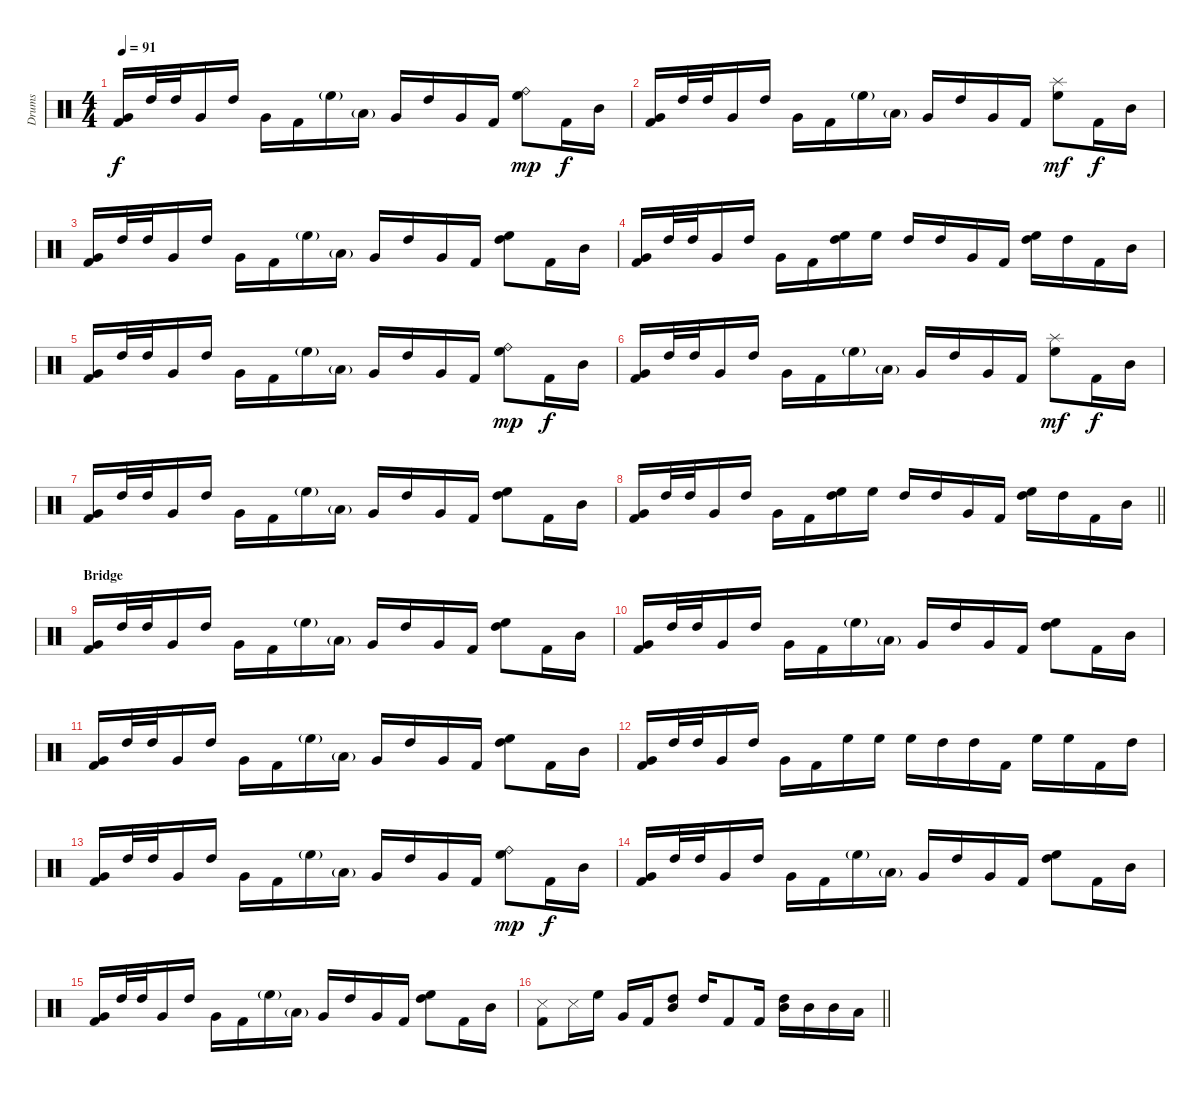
\track ("Drums" "Drums") {instrument percussion}
\staff {score}
\articulation defaults
\ts (4 4)
\section ("" "")
\tempo 91
\clef neutral
\ks c
("Very Low Tom (hit)" "Kick (hit) 2").16{dy f} "High Tom (hit)".32 "High Tom (hit)".32 "Very Low Tom (hit)".16 "High Tom (hit)".16 "Very Low Tom (hit)".16 "Kick (hit) 2".16 "High Floor Tom (hit)"{g}.16 "Low Floor Tom (hit)"{g}.16 "Very Low Tom (hit)".16 "High Tom (hit)".16 "Very Low Tom (hit)".16 "Kick (hit) 2".16 ("Ride (bell)" "High Floor Tom (hit)").8{dy mp} "Kick (hit) 2".16{dy f} "Mid Tom (hit)".16 |
("Very Low Tom (hit)" "Kick (hit) 2").16 "High Tom (hit)".32 "High Tom (hit)".32 "Very Low Tom (hit)".16 "High Tom (hit)".16 "Very Low Tom (hit)".16 "Kick (hit) 2".16 "High Floor Tom (hit)"{g}.16 "Low Floor Tom (hit)"{g}.16 "Very Low Tom (hit)".16 "High Tom (hit)".16 "Very Low Tom (hit)".16 "Kick (hit) 2".16 ("Splash (hit)" "High Floor Tom (hit)").8{dy mf} "Kick (hit) 2".16{dy f} "Mid Tom (hit)".16 |
("Very Low Tom (hit)" "Kick (hit) 2").16 "High Tom (hit)".32 "High Tom (hit)".32 "Very Low Tom (hit)".16 "High Tom (hit)".16 "Very Low Tom (hit)".16 "Kick (hit) 2".16 "High Floor Tom (hit)"{g}.16 "Low Floor Tom (hit)"{g}.16 "Very Low Tom (hit)".16 "High Tom (hit)".16 "Very Low Tom (hit)".16 "Kick (hit) 2".16 ("High Floor Tom (hit)" "High Tom (hit)").8 "Kick (hit) 2".16 "Mid Tom (hit)".16 |
("Very Low Tom (hit)" "Kick (hit) 2").16 "High Tom (hit)".32 "High Tom (hit)".32 "Very Low Tom (hit)".16 "High Tom (hit)".16 "Very Low Tom (hit)".16 "Kick (hit) 2".16 ("High Floor Tom (hit)" "High Tom (hit)").16 "High Floor Tom (hit)".16 "High Tom (hit)".16 "High Tom (hit)".16 "Very Low Tom (hit)".16 "Kick (hit) 2".16 ("High Floor Tom (hit)" "High Tom (hit)").16 "High Tom (hit)".16 "Kick (hit) 2".16 "Mid Tom (hit)".16 |
("Very Low Tom (hit)" "Kick (hit) 2").16 "High Tom (hit)".32 "High Tom (hit)".32 "Very Low Tom (hit)".16 "High Tom (hit)".16 "Very Low Tom (hit)".16 "Kick (hit) 2".16 "High Floor Tom (hit)"{g}.16 "Low Floor Tom (hit)"{g}.16 "Very Low Tom (hit)".16 "High Tom (hit)".16 "Very Low Tom (hit)".16 "Kick (hit) 2".16 ("Ride (bell)" "High Floor Tom (hit)").8{dy mp} "Kick (hit) 2".16{dy f} "Mid Tom (hit)".16 |
("Very Low Tom (hit)" "Kick (hit) 2").16 "High Tom (hit)".32 "High Tom (hit)".32 "Very Low Tom (hit)".16 "High Tom (hit)".16 "Very Low Tom (hit)".16 "Kick (hit) 2".16 "High Floor Tom (hit)"{g}.16 "Low Floor Tom (hit)"{g}.16 "Very Low Tom (hit)".16 "High Tom (hit)".16 "Very Low Tom (hit)".16 "Kick (hit) 2".16 ("Splash (hit)" "High Floor Tom (hit)").8{dy mf} "Kick (hit) 2".16{dy f} "Mid Tom (hit)".16 |
("Very Low Tom (hit)" "Kick (hit) 2").16 "High Tom (hit)".32 "High Tom (hit)".32 "Very Low Tom (hit)".16 "High Tom (hit)".16 "Very Low Tom (hit)".16 "Kick (hit) 2".16 "High Floor Tom (hit)"{g}.16 "Low Floor Tom (hit)"{g}.16 "Very Low Tom (hit)".16 "High Tom (hit)".16 "Very Low Tom (hit)".16 "Kick (hit) 2".16 ("High Floor Tom (hit)" "High Tom (hit)").8 "Kick (hit) 2".16 "Mid Tom (hit)".16 |
\barLineRight lightlight
("Very Low Tom (hit)" "Kick (hit) 2").16 "High Tom (hit)".32 "High Tom (hit)".32 "Very Low Tom (hit)".16 "High Tom (hit)".16 "Very Low Tom (hit)".16 "Kick (hit) 2".16 ("High Floor Tom (hit)" "High Tom (hit)").16 "High Floor Tom (hit)".16 "High Tom (hit)".16 "High Tom (hit)".16 "Very Low Tom (hit)".16 "Kick (hit) 2".16 ("High Floor Tom (hit)" "High Tom (hit)").16 "High Tom (hit)".16 "Kick (hit) 2".16 "Mid Tom (hit)".16 |
\section ("" "Bridge")
("Very Low Tom (hit)" "Kick (hit) 2").16 "High Tom (hit)".32 "High Tom (hit)".32 "Very Low Tom (hit)".16 "High Tom (hit)".16 "Very Low Tom (hit)".16 "Kick (hit) 2".16 "High Floor Tom (hit)"{g}.16 "Low Floor Tom (hit)"{g}.16 "Very Low Tom (hit)".16 "High Tom (hit)".16 "Very Low Tom (hit)".16 "Kick (hit) 2".16 ("High Floor Tom (hit)" "High Tom (hit)").8 "Kick (hit) 2".16 "Mid Tom (hit)".16 |
("Very Low Tom (hit)" "Kick (hit) 2").16 "High Tom (hit)".32 "High Tom (hit)".32 "Very Low Tom (hit)".16 "High Tom (hit)".16 "Very Low Tom (hit)".16 "Kick (hit) 2".16 "High Floor Tom (hit)"{g}.16 "Low Floor Tom (hit)"{g}.16 "Very Low Tom (hit)".16 "High Tom (hit)".16 "Very Low Tom (hit)".16 "Kick (hit) 2".16 ("High Floor Tom (hit)" "High Tom (hit)").8 "Kick (hit) 2".16 "Mid Tom (hit)".16 |
("Very Low Tom (hit)" "Kick (hit) 2").16 "High Tom (hit)".32 "High Tom (hit)".32 "Very Low Tom (hit)".16 "High Tom (hit)".16 "Very Low Tom (hit)".16 "Kick (hit) 2".16 "High Floor Tom (hit)"{g}.16 "Low Floor Tom (hit)"{g}.16 "Very Low Tom (hit)".16 "High Tom (hit)".16 "Very Low Tom (hit)".16 "Kick (hit) 2".16 ("High Floor Tom (hit)" "High Tom (hit)").8 "Kick (hit) 2".16 "Mid Tom (hit)".16 |
("Very Low Tom (hit)" "Kick (hit) 2").16 "High Tom (hit)".32 "High Tom (hit)".32 "Very Low Tom (hit)".16 "High Tom (hit)".16 "Very Low Tom (hit)".16 "Kick (hit) 2".16 "High Floor Tom (hit)".16 "High Floor Tom (hit)".16 "High Floor Tom (hit)".16 "High Tom (hit)".16 "High Tom (hit)".16 "Kick (hit) 2".16 "High Floor Tom (hit)".16 "High Floor Tom (hit)".16 "Kick (hit) 2".16 "High Tom (hit)".16 |
("Very Low Tom (hit)" "Kick (hit) 2").16 "High Tom (hit)".32 "High Tom (hit)".32 "Very Low Tom (hit)".16 "High Tom (hit)".16 "Very Low Tom (hit)".16 "Kick (hit) 2".16 "High Floor Tom (hit)"{g}.16 "Low Floor Tom (hit)"{g}.16 "Very Low Tom (hit)".16 "High Tom (hit)".16 "Very Low Tom (hit)".16 "Kick (hit) 2".16 ("Ride (bell)" "High Floor Tom (hit)").8{dy mp} "Kick (hit) 2".16{dy f} "Mid Tom (hit)".16 |
("Very Low Tom (hit)" "Kick (hit) 2").16 "High Tom (hit)".32 "High Tom (hit)".32 "Very Low Tom (hit)".16 "High Tom (hit)".16 "Very Low Tom (hit)".16 "Kick (hit) 2".16 "High Floor Tom (hit)"{g}.16 "Low Floor Tom (hit)"{g}.16 "Very Low Tom (hit)".16 "High Tom (hit)".16 "Very Low Tom (hit)".16 "Kick (hit) 2".16 ("High Floor Tom (hit)" "High Tom (hit)").8 "Kick (hit) 2".16 "Mid Tom (hit)".16 |
("Very Low Tom (hit)" "Kick (hit) 2").16 "High Tom (hit)".32 "High Tom (hit)".32 "Very Low Tom (hit)".16 "High Tom (hit)".16 "Very Low Tom (hit)".16 "Kick (hit) 2".16 "High Floor Tom (hit)"{g}.16 "Low Floor Tom (hit)"{g}.16 "Very Low Tom (hit)".16 "High Tom (hit)".16 "Very Low Tom (hit)".16 "Kick (hit) 2".16 ("High Floor Tom (hit)" "High Tom (hit)").8 "Kick (hit) 2".16 "Mid Tom (hit)".16 |
\barLineRight lightlight
("Snare (side stick) 3" "Kick (hit) 2").8 "Snare (side stick) 3".16 "High Floor Tom (hit)".16 "Very Low Tom (hit)".16 "Kick (hit) 2".16 ("High Tom (hit)" "Mid Tom (hit)").8 "High Tom (hit)".16 "Kick (hit) 2".8 "Kick (hit) 2".16 ("High Tom (hit)" "Mid Tom (hit)").16 "Mid Tom (hit)".16 "Mid Tom (hit)".16 "Low Tom (hit)".16
